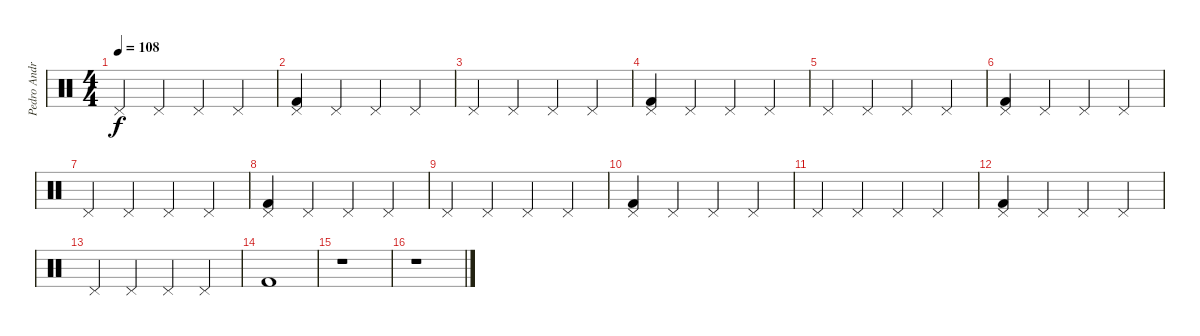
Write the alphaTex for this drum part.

\track ("Pedro Andreu" "Pedro Andr") {instrument percussion}
\staff {score}
\articulation defaults
\ts (4 4)
\tempo 108
\clef neutral
\ks c "Pedal Hi-Hat (hit)".4{dy f} "Pedal Hi-Hat (hit)".4 "Pedal Hi-Hat (hit)".4 "Pedal Hi-Hat (hit)".4
|
("Kick (hit) 2" "Pedal Hi-Hat (hit)").4 "Pedal Hi-Hat (hit)".4 "Pedal Hi-Hat (hit)".4 "Pedal Hi-Hat (hit)".4 |
"Pedal Hi-Hat (hit)".4 "Pedal Hi-Hat (hit)".4 "Pedal Hi-Hat (hit)".4 "Pedal Hi-Hat (hit)".4 |
("Kick (hit) 2" "Pedal Hi-Hat (hit)").4 "Pedal Hi-Hat (hit)".4 "Pedal Hi-Hat (hit)".4 "Pedal Hi-Hat (hit)".4 |
"Pedal Hi-Hat (hit)".4 "Pedal Hi-Hat (hit)".4 "Pedal Hi-Hat (hit)".4 "Pedal Hi-Hat (hit)".4 |
("Kick (hit) 2" "Pedal Hi-Hat (hit)").4 "Pedal Hi-Hat (hit)".4 "Pedal Hi-Hat (hit)".4 "Pedal Hi-Hat (hit)".4 |
"Pedal Hi-Hat (hit)".4 "Pedal Hi-Hat (hit)".4 "Pedal Hi-Hat (hit)".4 "Pedal Hi-Hat (hit)".4 |
("Kick (hit) 2" "Pedal Hi-Hat (hit)").4 "Pedal Hi-Hat (hit)".4 "Pedal Hi-Hat (hit)".4 "Pedal Hi-Hat (hit)".4 |
"Pedal Hi-Hat (hit)".4 "Pedal Hi-Hat (hit)".4 "Pedal Hi-Hat (hit)".4 "Pedal Hi-Hat (hit)".4 |
("Kick (hit) 2" "Pedal Hi-Hat (hit)").4 "Pedal Hi-Hat (hit)".4 "Pedal Hi-Hat (hit)".4 "Pedal Hi-Hat (hit)".4 |
"Pedal Hi-Hat (hit)".4 "Pedal Hi-Hat (hit)".4 "Pedal Hi-Hat (hit)".4 "Pedal Hi-Hat (hit)".4 |
("Kick (hit) 2" "Pedal Hi-Hat (hit)").4 "Pedal Hi-Hat (hit)".4 "Pedal Hi-Hat (hit)".4 "Pedal Hi-Hat (hit)".4 |
"Pedal Hi-Hat (hit)".4 "Pedal Hi-Hat (hit)".4 "Pedal Hi-Hat (hit)".4 "Pedal Hi-Hat (hit)".4 |
"Kick (hit) 2".1 |
r.1 |
r.1
